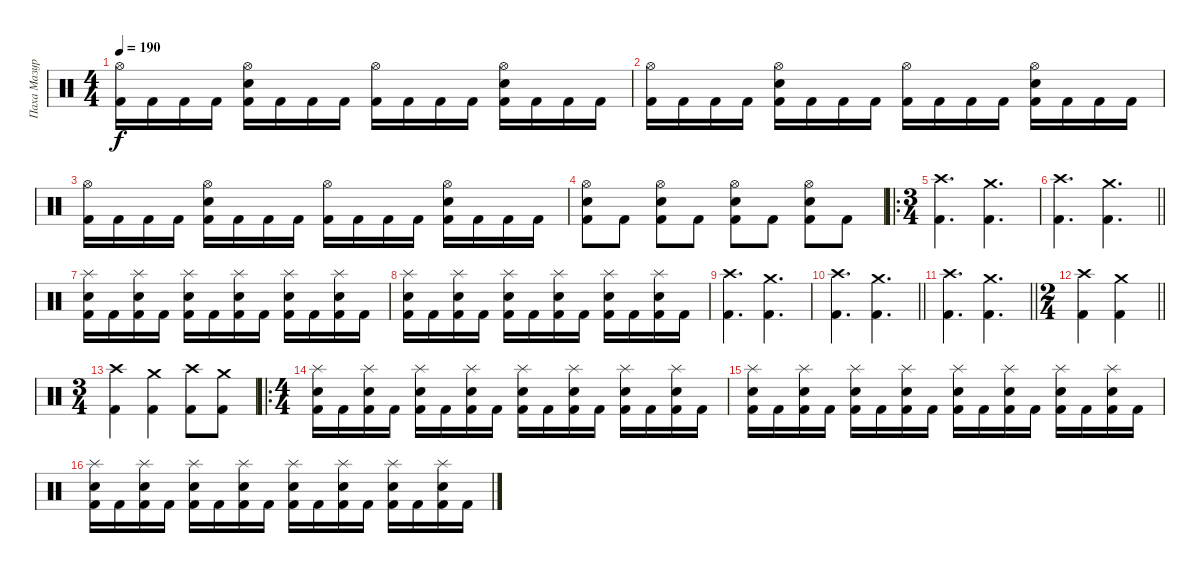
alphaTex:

\track ("Паха Мазуркевич" "Паха Мазур") {instrument percussion}
\staff {score}
\articulation defaults
\ts (4 4)
\tempo 190
\clef neutral
\ks c
("Hi-Hat (open)" "Kick (hit) 2").16{dy f} "Kick (hit) 2".16 "Kick (hit) 2".16 "Kick (hit) 2".16 ("Hi-Hat (open)" "Snare (hit) 2" "Kick (hit) 2").16 "Kick (hit) 2".16 "Kick (hit) 2".16 "Kick (hit) 2".16 ("Hi-Hat (open)" "Kick (hit) 2").16 "Kick (hit) 2".16 "Kick (hit) 2".16 "Kick (hit) 2".16 ("Hi-Hat (open)" "Snare (hit) 2" "Kick (hit) 2").16 "Kick (hit) 2".16 "Kick (hit) 2".16 "Kick (hit) 2".16 |
("Hi-Hat (open)" "Kick (hit) 2").16 "Kick (hit) 2".16 "Kick (hit) 2".16 "Kick (hit) 2".16 ("Hi-Hat (open)" "Snare (hit) 2" "Kick (hit) 2").16 "Kick (hit) 2".16 "Kick (hit) 2".16 "Kick (hit) 2".16 ("Hi-Hat (open)" "Kick (hit) 2").16 "Kick (hit) 2".16 "Kick (hit) 2".16 "Kick (hit) 2".16 ("Hi-Hat (open)" "Snare (hit) 2" "Kick (hit) 2").16 "Kick (hit) 2".16 "Kick (hit) 2".16 "Kick (hit) 2".16 |
("Hi-Hat (open)" "Kick (hit) 2").16 "Kick (hit) 2".16 "Kick (hit) 2".16 "Kick (hit) 2".16 ("Hi-Hat (open)" "Snare (hit) 2" "Kick (hit) 2").16 "Kick (hit) 2".16 "Kick (hit) 2".16 "Kick (hit) 2".16 ("Hi-Hat (open)" "Kick (hit) 2").16 "Kick (hit) 2".16 "Kick (hit) 2".16 "Kick (hit) 2".16 ("Hi-Hat (open)" "Snare (hit) 2" "Kick (hit) 2").16 "Kick (hit) 2".16 "Kick (hit) 2".16 "Kick (hit) 2".16 |
("Hi-Hat (open)" "Snare (hit) 2" "Kick (hit) 2").8 "Kick (hit) 2".8 ("Hi-Hat (open)" "Snare (hit) 2" "Kick (hit) 2").8 "Kick (hit) 2".8 ("Hi-Hat (open)" "Snare (hit) 2" "Kick (hit) 2").8 "Kick (hit) 2".8 ("Hi-Hat (open)" "Snare (hit) 2" "Kick (hit) 2").8 "Kick (hit) 2".8 |
\ro
\ts (3 4)
("Crash high (hit)" "Kick (hit) 2").4{d} ("Crash medium (hit)" "Kick (hit) 2").4{d} |
\barLineRight lightlight
("Crash high (hit)" "Kick (hit) 2").4{d} ("Crash medium (hit)" "Kick (hit) 2").4{d} |
("Splash (hit)" "Snare (hit) 2" "Kick (hit) 2").16 "Kick (hit) 2".16 ("Splash (hit)" "Snare (hit) 2" "Kick (hit) 2").16 "Kick (hit) 2".16 ("Splash (hit)" "Snare (hit) 2" "Kick (hit) 2").16 "Kick (hit) 2".16 ("Splash (hit)" "Snare (hit) 2" "Kick (hit) 2").16 "Kick (hit) 2".16 ("Splash (hit)" "Snare (hit) 2" "Kick (hit) 2").16 "Kick (hit) 2".16 ("Splash (hit)" "Snare (hit) 2" "Kick (hit) 2").16 "Kick (hit) 2".16 |
("Splash (hit)" "Snare (hit) 2" "Kick (hit) 2").16 "Kick (hit) 2".16 ("Splash (hit)" "Snare (hit) 2" "Kick (hit) 2").16 "Kick (hit) 2".16 ("Splash (hit)" "Snare (hit) 2" "Kick (hit) 2").16 "Kick (hit) 2".16 ("Splash (hit)" "Snare (hit) 2" "Kick (hit) 2").16 "Kick (hit) 2".16 ("Splash (hit)" "Snare (hit) 2" "Kick (hit) 2").16 "Kick (hit) 2".16 ("Splash (hit)" "Snare (hit) 2" "Kick (hit) 2").16 "Kick (hit) 2".16 |
("Crash high (hit)" "Kick (hit) 2").4{d} ("Crash medium (hit)" "Kick (hit) 2").4{d} |
\barLineRight lightlight
("Crash high (hit)" "Kick (hit) 2").4{d} ("Crash medium (hit)" "Kick (hit) 2").4{d} |
\barLineRight lightlight
("Crash high (hit)" "Kick (hit) 2").4{d} ("Crash medium (hit)" "Kick (hit) 2").4{d} |
\ts (2 4)
\barLineRight lightlight
("Crash high (hit)" "Kick (hit) 2").4 ("Crash medium (hit)" "Kick (hit) 2").4 |
\ts (3 4)
("Crash high (hit)" "Kick (hit) 2").4 ("Crash medium (hit)" "Kick (hit) 2").4 ("Crash high (hit)" "Kick (hit) 2").8 ("Crash medium (hit)" "Kick (hit) 2").8 |
\ro
\ts (4 4)
("Splash (hit)" "Snare (hit) 2" "Kick (hit) 2").16 "Kick (hit) 2".16 ("Splash (hit)" "Snare (hit) 2" "Kick (hit) 2").16 "Kick (hit) 2".16 ("Splash (hit)" "Snare (hit) 2" "Kick (hit) 2").16 "Kick (hit) 2".16 ("Splash (hit)" "Snare (hit) 2" "Kick (hit) 2").16 "Kick (hit) 2".16 ("Splash (hit)" "Snare (hit) 2" "Kick (hit) 2").16 "Kick (hit) 2".16 ("Splash (hit)" "Snare (hit) 2" "Kick (hit) 2").16 "Kick (hit) 2".16 ("Splash (hit)" "Snare (hit) 2" "Kick (hit) 2").16 "Kick (hit) 2".16 ("Splash (hit)" "Snare (hit) 2" "Kick (hit) 2").16 "Kick (hit) 2".16 |
("Splash (hit)" "Snare (hit) 2" "Kick (hit) 2").16 "Kick (hit) 2".16 ("Splash (hit)" "Snare (hit) 2" "Kick (hit) 2").16 "Kick (hit) 2".16 ("Splash (hit)" "Snare (hit) 2" "Kick (hit) 2").16 "Kick (hit) 2".16 ("Splash (hit)" "Snare (hit) 2" "Kick (hit) 2").16 "Kick (hit) 2".16 ("Splash (hit)" "Snare (hit) 2" "Kick (hit) 2").16 "Kick (hit) 2".16 ("Splash (hit)" "Snare (hit) 2" "Kick (hit) 2").16 "Kick (hit) 2".16 ("Splash (hit)" "Snare (hit) 2" "Kick (hit) 2").16 "Kick (hit) 2".16 ("Splash (hit)" "Snare (hit) 2" "Kick (hit) 2").16 "Kick (hit) 2".16 |
("Splash (hit)" "Snare (hit) 2" "Kick (hit) 2").16 "Kick (hit) 2".16 ("Splash (hit)" "Snare (hit) 2" "Kick (hit) 2").16 "Kick (hit) 2".16 ("Splash (hit)" "Snare (hit) 2" "Kick (hit) 2").16 "Kick (hit) 2".16 ("Splash (hit)" "Snare (hit) 2" "Kick (hit) 2").16 "Kick (hit) 2".16 ("Splash (hit)" "Snare (hit) 2" "Kick (hit) 2").16 "Kick (hit) 2".16 ("Splash (hit)" "Snare (hit) 2" "Kick (hit) 2").16 "Kick (hit) 2".16 ("Splash (hit)" "Snare (hit) 2" "Kick (hit) 2").16 "Kick (hit) 2".16 ("Splash (hit)" "Snare (hit) 2" "Kick (hit) 2").16 "Kick (hit) 2".16
